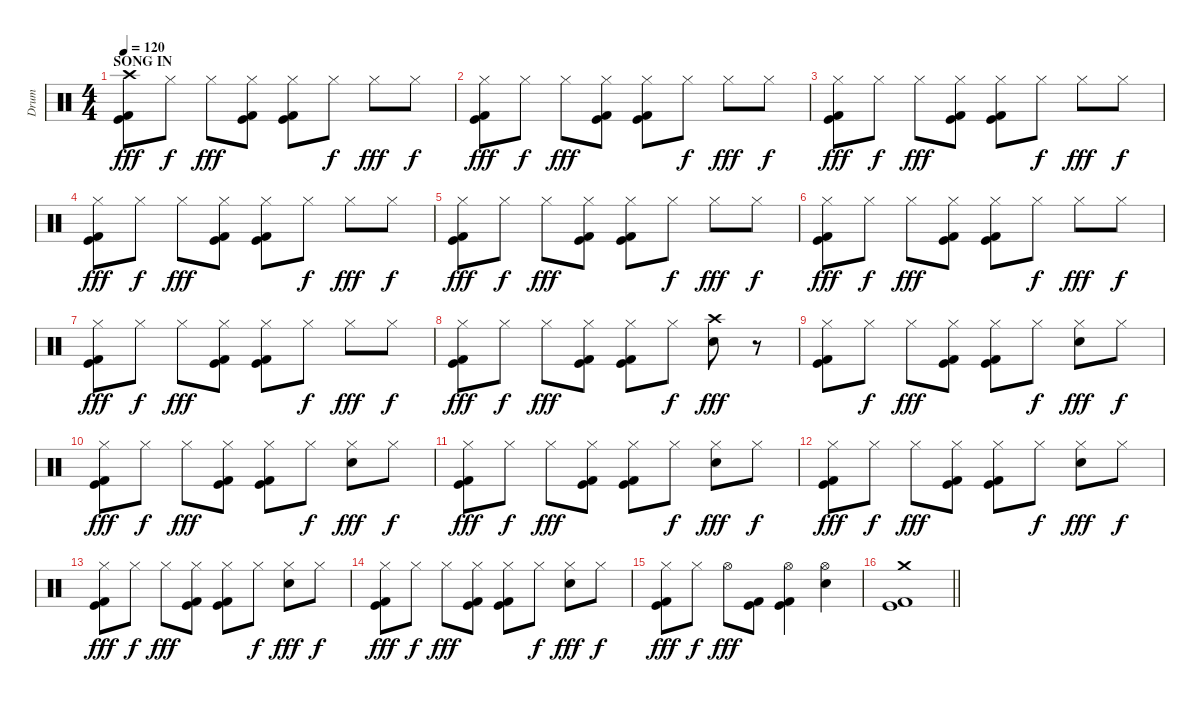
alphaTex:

\track ("Drum" "Drum") {instrument percussion}
\staff {score}
\articulation defaults
\ts (4 4)
\section ("" "SONG IN")
\tempo 120
\clef neutral
\ks c
("Kick (hit)" "Kick (hit) 2" "Crash high (hit)").8{dy fff} "Hi-Hat (closed)".8{dy f} "Hi-Hat (closed)".8{dy fff} ("Kick (hit)" "Kick (hit) 2" "Hi-Hat (closed)").8 ("Kick (hit)" "Kick (hit) 2" "Hi-Hat (closed)").8 "Hi-Hat (closed)".8{dy f} "Hi-Hat (closed)".8{dy fff} "Hi-Hat (closed)".8{dy f} |
("Kick (hit)" "Kick (hit) 2" "Hi-Hat (closed)").8{dy fff} "Hi-Hat (closed)".8{dy f} "Hi-Hat (closed)".8{dy fff} ("Kick (hit)" "Kick (hit) 2" "Hi-Hat (closed)").8 ("Kick (hit)" "Kick (hit) 2" "Hi-Hat (closed)").8 "Hi-Hat (closed)".8{dy f} "Hi-Hat (closed)".8{dy fff} "Hi-Hat (closed)".8{dy f} |
("Kick (hit)" "Kick (hit) 2" "Hi-Hat (closed)").8{dy fff} "Hi-Hat (closed)".8{dy f} "Hi-Hat (closed)".8{dy fff} ("Kick (hit)" "Kick (hit) 2" "Hi-Hat (closed)").8 ("Kick (hit)" "Kick (hit) 2" "Hi-Hat (closed)").8 "Hi-Hat (closed)".8{dy f} "Hi-Hat (closed)".8{dy fff} "Hi-Hat (closed)".8{dy f} |
("Kick (hit)" "Kick (hit) 2" "Hi-Hat (closed)").8{dy fff} "Hi-Hat (closed)".8{dy f} "Hi-Hat (closed)".8{dy fff} ("Kick (hit)" "Kick (hit) 2" "Hi-Hat (closed)").8 ("Kick (hit)" "Kick (hit) 2" "Hi-Hat (closed)").8 "Hi-Hat (closed)".8{dy f} "Hi-Hat (closed)".8{dy fff} "Hi-Hat (closed)".8{dy f} |
("Kick (hit)" "Kick (hit) 2" "Hi-Hat (closed)").8{dy fff} "Hi-Hat (closed)".8{dy f} "Hi-Hat (closed)".8{dy fff} ("Kick (hit)" "Kick (hit) 2" "Hi-Hat (closed)").8 ("Kick (hit)" "Kick (hit) 2" "Hi-Hat (closed)").8 "Hi-Hat (closed)".8{dy f} "Hi-Hat (closed)".8{dy fff} "Hi-Hat (closed)".8{dy f} |
("Kick (hit)" "Kick (hit) 2" "Hi-Hat (closed)").8{dy fff} "Hi-Hat (closed)".8{dy f} "Hi-Hat (closed)".8{dy fff} ("Kick (hit)" "Kick (hit) 2" "Hi-Hat (closed)").8 ("Kick (hit)" "Kick (hit) 2" "Hi-Hat (closed)").8 "Hi-Hat (closed)".8{dy f} "Hi-Hat (closed)".8{dy fff} "Hi-Hat (closed)".8{dy f} |
("Kick (hit)" "Kick (hit) 2" "Hi-Hat (closed)").8{dy fff} "Hi-Hat (closed)".8{dy f} "Hi-Hat (closed)".8{dy fff} ("Kick (hit)" "Kick (hit) 2" "Hi-Hat (closed)").8 ("Kick (hit)" "Kick (hit) 2" "Hi-Hat (closed)").8 "Hi-Hat (closed)".8{dy f} "Hi-Hat (closed)".8{dy fff} "Hi-Hat (closed)".8{dy f} |
("Kick (hit)" "Kick (hit) 2" "Hi-Hat (closed)").8{dy fff} "Hi-Hat (closed)".8{dy f} "Hi-Hat (closed)".8{dy fff} ("Kick (hit)" "Kick (hit) 2" "Hi-Hat (closed)").8 ("Kick (hit)" "Kick (hit) 2" "Hi-Hat (closed)").8 "Hi-Hat (closed)".8{dy f} ("Snare (hit) 2" "Crash high (hit)").8{dy fff} r.8 |
("Kick (hit)" "Kick (hit) 2" "Hi-Hat (closed)").8 "Hi-Hat (closed)".8{dy f} "Hi-Hat (closed)".8{dy fff} ("Kick (hit)" "Kick (hit) 2" "Hi-Hat (closed)").8 ("Kick (hit)" "Kick (hit) 2" "Hi-Hat (closed)").8 "Hi-Hat (closed)".8{dy f} ("Snare (hit) 2" "Hi-Hat (closed)").8{dy fff} "Hi-Hat (closed)".8{dy f} |
("Kick (hit)" "Kick (hit) 2" "Hi-Hat (closed)").8{dy fff} "Hi-Hat (closed)".8{dy f} "Hi-Hat (closed)".8{dy fff} ("Kick (hit)" "Kick (hit) 2" "Hi-Hat (closed)").8 ("Kick (hit)" "Kick (hit) 2" "Hi-Hat (closed)").8 "Hi-Hat (closed)".8{dy f} ("Snare (hit) 2" "Hi-Hat (closed)").8{dy fff} "Hi-Hat (closed)".8{dy f} |
("Kick (hit)" "Kick (hit) 2" "Hi-Hat (closed)").8{dy fff} "Hi-Hat (closed)".8{dy f} "Hi-Hat (closed)".8{dy fff} ("Kick (hit)" "Kick (hit) 2" "Hi-Hat (closed)").8 ("Kick (hit)" "Kick (hit) 2" "Hi-Hat (closed)").8 "Hi-Hat (closed)".8{dy f} ("Snare (hit) 2" "Hi-Hat (closed)").8{dy fff} "Hi-Hat (closed)".8{dy f} |
("Kick (hit)" "Kick (hit) 2" "Hi-Hat (closed)").8{dy fff} "Hi-Hat (closed)".8{dy f} "Hi-Hat (closed)".8{dy fff} ("Kick (hit)" "Kick (hit) 2" "Hi-Hat (closed)").8 ("Kick (hit)" "Kick (hit) 2" "Hi-Hat (closed)").8 "Hi-Hat (closed)".8{dy f} ("Snare (hit) 2" "Hi-Hat (closed)").8{dy fff} "Hi-Hat (closed)".8{dy f} |
("Kick (hit)" "Kick (hit) 2" "Hi-Hat (closed)").8{dy fff} "Hi-Hat (closed)".8{dy f} "Hi-Hat (closed)".8{dy fff} ("Kick (hit)" "Kick (hit) 2" "Hi-Hat (closed)").8 ("Kick (hit)" "Kick (hit) 2" "Hi-Hat (closed)").8 "Hi-Hat (closed)".8{dy f} ("Snare (hit) 2" "Hi-Hat (closed)").8{dy fff} "Hi-Hat (closed)".8{dy f} |
("Kick (hit)" "Kick (hit) 2" "Hi-Hat (closed)").8{dy fff} "Hi-Hat (closed)".8{dy f} "Hi-Hat (closed)".8{dy fff} ("Kick (hit)" "Kick (hit) 2" "Hi-Hat (closed)").8 ("Kick (hit)" "Kick (hit) 2" "Hi-Hat (closed)").8 "Hi-Hat (closed)".8{dy f} ("Snare (hit) 2" "Hi-Hat (closed)").8{dy fff} "Hi-Hat (closed)".8{dy f} |
("Kick (hit)" "Kick (hit) 2" "Hi-Hat (closed)").8{dy fff} "Hi-Hat (closed)".8{dy f} "Hi-Hat (open)".8{dy fff} ("Kick (hit)" "Kick (hit) 2").8 ("Kick (hit)" "Kick (hit) 2" "Hi-Hat (open)").4 ("Snare (hit) 2" "Hi-Hat (open)").4 |
\barLineRight lightlight
("Kick (hit)" "Kick (hit) 2" "Crash medium (hit)").1
